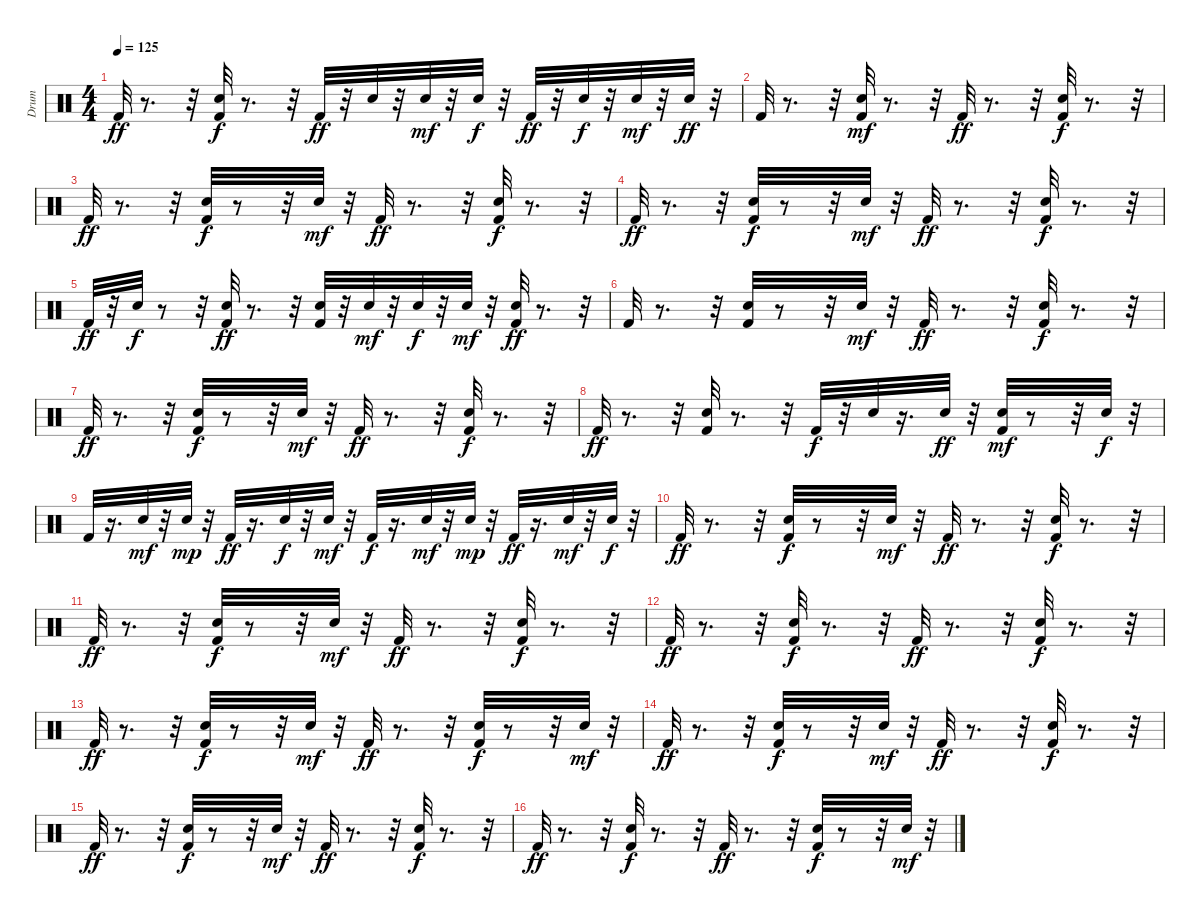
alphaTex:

\track ("Drum" "Drum") {instrument percussion}
\staff {score}
\articulation defaults
\ts (4 4)
\tempo 125
\clef neutral
\ks c "Kick (hit) 2".32{dy ff}
r.8{d} r.32 ("Snare (hit) 2" "Kick (hit) 2").32{dy f} r.8{d} r.32 "Kick (hit) 2".32{dy ff} r.32 "Snare (hit) 2".32 r.32 "Snare (hit) 2".32{dy mf} r.32 "Snare (hit) 2".32{dy f} r.32 "Kick (hit) 2".32{dy ff} r.32 "Snare (hit) 2".32{dy f} r.32 "Snare (hit) 2".32{dy mf} r.32 "Snare (hit) 2".32{dy ff} r.32 |
"Kick (hit) 2".32 r.8{d} r.32 ("Snare (hit) 2" "Kick (hit) 2").32{dy mf} r.8{d} r.32 "Kick (hit) 2".32{dy ff} r.8{d} r.32 ("Snare (hit) 2" "Kick (hit) 2").32{dy f} r.8{d} r.32 |
"Kick (hit) 2".32{dy ff} r.8{d} r.32 ("Snare (hit) 2" "Kick (hit) 2").32{dy f} r.8 r.32 "Snare (hit) 2".32{dy mf} r.32 "Kick (hit) 2".32{dy ff} r.8{d} r.32 ("Snare (hit) 2" "Kick (hit) 2").32{dy f} r.8{d} r.32 |
"Kick (hit) 2".32{dy ff} r.8{d} r.32 ("Snare (hit) 2" "Kick (hit) 2").32{dy f} r.8 r.32 "Snare (hit) 2".32{dy mf} r.32 "Kick (hit) 2".32{dy ff} r.8{d} r.32 ("Snare (hit) 2" "Kick (hit) 2").32{dy f} r.8{d} r.32 |
"Kick (hit) 2".32{dy ff} r.32 "Snare (hit) 2".32{dy f} r.8 r.32 ("Snare (hit) 2" "Kick (hit) 2").32{dy ff} r.8{d} r.32 ("Snare (hit) 2" "Kick (hit) 2").32 r.32 "Snare (hit) 2".32{dy mf} r.32 "Snare (hit) 2".32{dy f} r.32 "Snare (hit) 2".32{dy mf} r.32 ("Snare (hit) 2" "Kick (hit) 2").32{dy ff} r.8{d} r.32 |
"Kick (hit) 2".32 r.8{d} r.32 ("Snare (hit) 2" "Kick (hit) 2").32 r.8 r.32 "Snare (hit) 2".32{dy mf} r.32 "Kick (hit) 2".32{dy ff} r.8{d} r.32 ("Snare (hit) 2" "Kick (hit) 2").32{dy f} r.8{d} r.32 |
"Kick (hit) 2".32{dy ff} r.8{d} r.32 ("Snare (hit) 2" "Kick (hit) 2").32{dy f} r.8 r.32 "Snare (hit) 2".32{dy mf} r.32 "Kick (hit) 2".32{dy ff} r.8{d} r.32 ("Snare (hit) 2" "Kick (hit) 2").32{dy f} r.8{d} r.32 |
"Kick (hit) 2".32{dy ff} r.8{d} r.32 ("Snare (hit) 2" "Kick (hit) 2").32 r.8{d} r.32 "Kick (hit) 2".32{dy f} r.32 "Snare (hit) 2".32 r.16{d} "Snare (hit) 2".32{dy ff} r.32 ("Snare (hit) 2" "Kick (hit) 2").32{dy mf} r.8 r.32 "Snare (hit) 2".32{dy f} r.32 |
"Kick (hit) 2".32 r.16{d} "Snare (hit) 2".32{dy mf} r.32 "Snare (hit) 2".32{dy mp} r.32 "Kick (hit) 2".32{dy ff} r.16{d} "Snare (hit) 2".32{dy f} r.32 "Snare (hit) 2".32{dy mf} r.32 "Kick (hit) 2".32{dy f} r.16{d} "Snare (hit) 2".32{dy mf} r.32 "Snare (hit) 2".32{dy mp} r.32 "Kick (hit) 2".32{dy ff} r.16{d} "Snare (hit) 2".32{dy mf} r.32 "Snare (hit) 2".32{dy f} r.32 |
"Kick (hit) 2".32{dy ff} r.8{d} r.32 ("Snare (hit) 2" "Kick (hit) 2").32{dy f} r.8 r.32 "Snare (hit) 2".32{dy mf} r.32 "Kick (hit) 2".32{dy ff} r.8{d} r.32 ("Snare (hit) 2" "Kick (hit) 2").32{dy f} r.8{d} r.32 |
"Kick (hit) 2".32{dy ff} r.8{d} r.32 ("Snare (hit) 2" "Kick (hit) 2").32{dy f} r.8 r.32 "Snare (hit) 2".32{dy mf} r.32 "Kick (hit) 2".32{dy ff} r.8{d} r.32 ("Snare (hit) 2" "Kick (hit) 2").32{dy f} r.8{d} r.32 |
"Kick (hit) 2".32{dy ff} r.8{d} r.32 ("Snare (hit) 2" "Kick (hit) 2").32{dy f} r.8{d} r.32 "Kick (hit) 2".32{dy ff} r.8{d} r.32 ("Snare (hit) 2" "Kick (hit) 2").32{dy f} r.8{d} r.32 |
"Kick (hit) 2".32{dy ff} r.8{d} r.32 ("Snare (hit) 2" "Kick (hit) 2").32{dy f} r.8 r.32 "Snare (hit) 2".32{dy mf} r.32 "Kick (hit) 2".32{dy ff} r.8{d} r.32 ("Snare (hit) 2" "Kick (hit) 2").32{dy f} r.8 r.32 "Snare (hit) 2".32{dy mf} r.32 |
"Kick (hit) 2".32{dy ff} r.8{d} r.32 ("Snare (hit) 2" "Kick (hit) 2").32{dy f} r.8 r.32 "Snare (hit) 2".32{dy mf} r.32 "Kick (hit) 2".32{dy ff} r.8{d} r.32 ("Snare (hit) 2" "Kick (hit) 2").32{dy f} r.8{d} r.32 |
"Kick (hit) 2".32{dy ff} r.8{d} r.32 ("Snare (hit) 2" "Kick (hit) 2").32{dy f} r.8 r.32 "Snare (hit) 2".32{dy mf} r.32 "Kick (hit) 2".32{dy ff} r.8{d} r.32 ("Snare (hit) 2" "Kick (hit) 2").32{dy f} r.8{d} r.32 |
"Kick (hit) 2".32{dy ff} r.8{d} r.32 ("Snare (hit) 2" "Kick (hit) 2").32{dy f} r.8{d} r.32 "Kick (hit) 2".32{dy ff} r.8{d} r.32 ("Snare (hit) 2" "Kick (hit) 2").32{dy f} r.8 r.32 "Snare (hit) 2".32{dy mf} r.32
